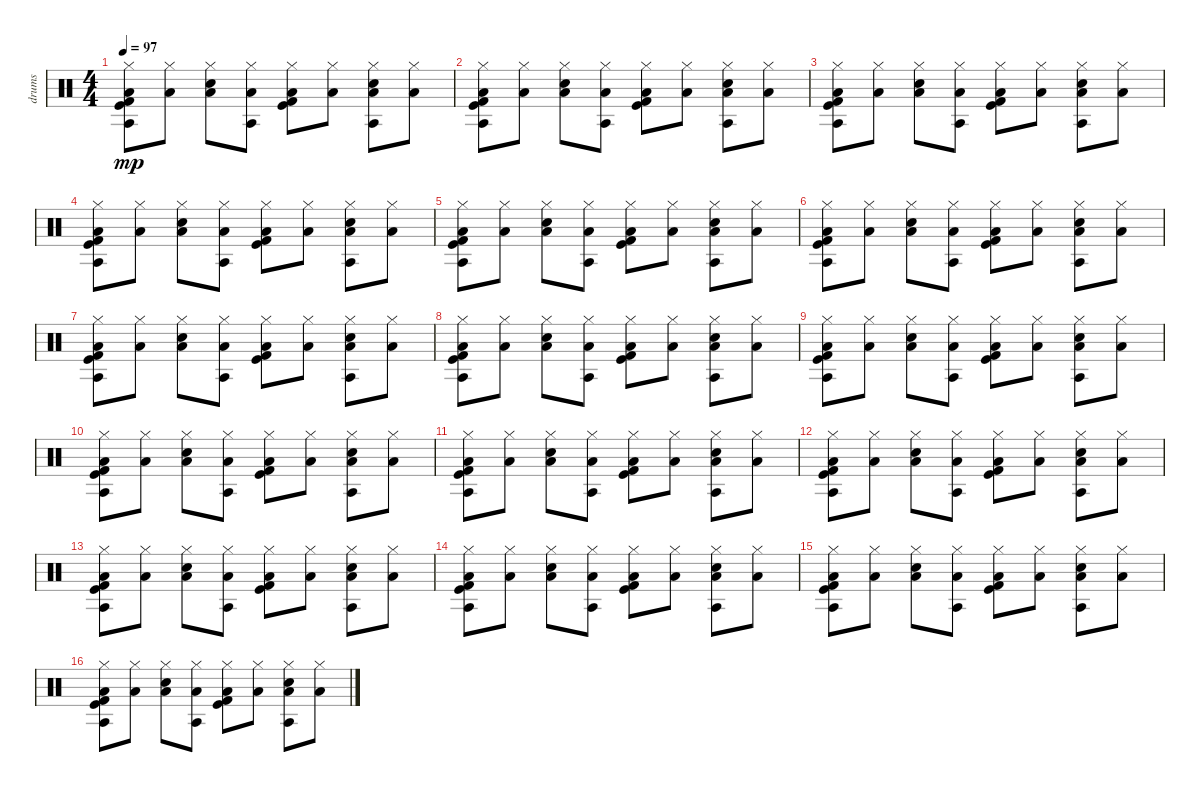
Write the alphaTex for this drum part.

\track ("drums" "drums") {instrument percussion}
\staff {score}
\articulation defaults
\ts (4 4)
\tempo 97
\clef neutral
\ks c
("Hi-Hat (closed)" "Agogo tow (hit)" "Kick (hit)" "Kick (hit) 2" "Low Floor Tom (hit)").8{dy mp} ("Hi-Hat (closed)" "Low Floor Tom (hit)").8 ("Electric Snare (hit)" "Hi-Hat (closed)" "Low Floor Tom (hit)").8 ("Hi-Hat (closed)" "Agogo tow (hit)" "Low Floor Tom (hit)").8 ("Kick (hit)" "Hi-Hat (closed)" "Kick (hit) 2" "Low Floor Tom (hit)").8 ("Hi-Hat (closed)" "Low Floor Tom (hit)").8 ("Agogo tow (hit)" "Hi-Hat (closed)" "Electric Snare (hit)" "Low Floor Tom (hit)").8 ("Hi-Hat (closed)" "Low Floor Tom (hit)").8 |
("Kick (hit)" "Kick (hit) 2" "Agogo tow (hit)" "Hi-Hat (closed)" "Low Floor Tom (hit)").8 ("Hi-Hat (closed)" "Low Floor Tom (hit)").8 ("Hi-Hat (closed)" "Electric Snare (hit)" "Low Floor Tom (hit)").8 ("Agogo tow (hit)" "Hi-Hat (closed)" "Low Floor Tom (hit)").8 ("Kick (hit) 2" "Kick (hit)" "Hi-Hat (closed)" "Low Floor Tom (hit)").8 ("Hi-Hat (closed)" "Low Floor Tom (hit)").8 ("Agogo tow (hit)" "Hi-Hat (closed)" "Electric Snare (hit)" "Low Floor Tom (hit)").8 ("Hi-Hat (closed)" "Low Floor Tom (hit)").8 |
("Kick (hit)" "Kick (hit) 2" "Hi-Hat (closed)" "Agogo tow (hit)" "Low Floor Tom (hit)").8 ("Hi-Hat (closed)" "Low Floor Tom (hit)").8 ("Hi-Hat (closed)" "Electric Snare (hit)" "Low Floor Tom (hit)").8 ("Hi-Hat (closed)" "Agogo tow (hit)" "Low Floor Tom (hit)").8 ("Kick (hit)" "Kick (hit) 2" "Hi-Hat (closed)" "Low Floor Tom (hit)").8 ("Hi-Hat (closed)" "Low Floor Tom (hit)").8 ("Hi-Hat (closed)" "Agogo tow (hit)" "Electric Snare (hit)" "Low Floor Tom (hit)").8 ("Hi-Hat (closed)" "Low Floor Tom (hit)").8 |
("Kick (hit) 2" "Kick (hit)" "Agogo tow (hit)" "Hi-Hat (closed)" "Low Floor Tom (hit)").8 ("Hi-Hat (closed)" "Low Floor Tom (hit)").8 ("Hi-Hat (closed)" "Electric Snare (hit)" "Low Floor Tom (hit)").8 ("Agogo tow (hit)" "Hi-Hat (closed)" "Low Floor Tom (hit)").8 ("Kick (hit)" "Kick (hit) 2" "Hi-Hat (closed)" "Low Floor Tom (hit)").8 ("Hi-Hat (closed)" "Low Floor Tom (hit)").8 ("Agogo tow (hit)" "Hi-Hat (closed)" "Electric Snare (hit)" "Low Floor Tom (hit)").8 ("Hi-Hat (closed)" "Low Floor Tom (hit)").8 |
("Kick (hit)" "Kick (hit) 2" "Agogo tow (hit)" "Hi-Hat (closed)" "Low Floor Tom (hit)").8 ("Hi-Hat (closed)" "Low Floor Tom (hit)").8 ("Hi-Hat (closed)" "Electric Snare (hit)" "Low Floor Tom (hit)").8 ("Agogo tow (hit)" "Hi-Hat (closed)" "Low Floor Tom (hit)").8 ("Kick (hit) 2" "Kick (hit)" "Hi-Hat (closed)" "Low Floor Tom (hit)").8 ("Hi-Hat (closed)" "Low Floor Tom (hit)").8 ("Agogo tow (hit)" "Hi-Hat (closed)" "Electric Snare (hit)" "Low Floor Tom (hit)").8 ("Hi-Hat (closed)" "Low Floor Tom (hit)").8 |
("Kick (hit)" "Kick (hit) 2" "Agogo tow (hit)" "Hi-Hat (closed)" "Low Floor Tom (hit)").8 ("Hi-Hat (closed)" "Low Floor Tom (hit)").8 ("Hi-Hat (closed)" "Electric Snare (hit)" "Low Floor Tom (hit)").8 ("Agogo tow (hit)" "Hi-Hat (closed)" "Low Floor Tom (hit)").8 ("Kick (hit)" "Kick (hit) 2" "Hi-Hat (closed)" "Low Floor Tom (hit)").8 ("Hi-Hat (closed)" "Low Floor Tom (hit)").8 ("Agogo tow (hit)" "Hi-Hat (closed)" "Electric Snare (hit)" "Low Floor Tom (hit)").8 ("Hi-Hat (closed)" "Low Floor Tom (hit)").8 |
("Kick (hit) 2" "Kick (hit)" "Hi-Hat (closed)" "Agogo tow (hit)" "Low Floor Tom (hit)").8 ("Hi-Hat (closed)" "Low Floor Tom (hit)").8 ("Hi-Hat (closed)" "Electric Snare (hit)" "Low Floor Tom (hit)").8 ("Hi-Hat (closed)" "Agogo tow (hit)" "Low Floor Tom (hit)").8 ("Kick (hit)" "Kick (hit) 2" "Hi-Hat (closed)" "Low Floor Tom (hit)").8 ("Hi-Hat (closed)" "Low Floor Tom (hit)").8 ("Hi-Hat (closed)" "Agogo tow (hit)" "Electric Snare (hit)" "Low Floor Tom (hit)").8 ("Hi-Hat (closed)" "Low Floor Tom (hit)").8 |
("Kick (hit)" "Kick (hit) 2" "Agogo tow (hit)" "Hi-Hat (closed)" "Low Floor Tom (hit)").8 ("Hi-Hat (closed)" "Low Floor Tom (hit)").8 ("Hi-Hat (closed)" "Electric Snare (hit)" "Low Floor Tom (hit)").8 ("Agogo tow (hit)" "Hi-Hat (closed)" "Low Floor Tom (hit)").8 ("Kick (hit)" "Kick (hit) 2" "Hi-Hat (closed)" "Low Floor Tom (hit)").8 ("Hi-Hat (closed)" "Low Floor Tom (hit)").8 ("Agogo tow (hit)" "Hi-Hat (closed)" "Electric Snare (hit)" "Low Floor Tom (hit)").8 ("Hi-Hat (closed)" "Low Floor Tom (hit)").8 |
("Hi-Hat (closed)" "Agogo tow (hit)" "Kick (hit)" "Kick (hit) 2" "Low Floor Tom (hit)").8 ("Hi-Hat (closed)" "Low Floor Tom (hit)").8 ("Electric Snare (hit)" "Hi-Hat (closed)" "Low Floor Tom (hit)").8 ("Hi-Hat (closed)" "Agogo tow (hit)" "Low Floor Tom (hit)").8 ("Kick (hit)" "Hi-Hat (closed)" "Kick (hit) 2" "Low Floor Tom (hit)").8 ("Hi-Hat (closed)" "Low Floor Tom (hit)").8 ("Agogo tow (hit)" "Hi-Hat (closed)" "Electric Snare (hit)" "Low Floor Tom (hit)").8 ("Hi-Hat (closed)" "Low Floor Tom (hit)").8 |
("Kick (hit)" "Kick (hit) 2" "Agogo tow (hit)" "Hi-Hat (closed)" "Low Floor Tom (hit)").8 ("Hi-Hat (closed)" "Low Floor Tom (hit)").8 ("Hi-Hat (closed)" "Electric Snare (hit)" "Low Floor Tom (hit)").8 ("Agogo tow (hit)" "Hi-Hat (closed)" "Low Floor Tom (hit)").8 ("Kick (hit) 2" "Kick (hit)" "Hi-Hat (closed)" "Low Floor Tom (hit)").8 ("Hi-Hat (closed)" "Low Floor Tom (hit)").8 ("Agogo tow (hit)" "Hi-Hat (closed)" "Electric Snare (hit)" "Low Floor Tom (hit)").8 ("Hi-Hat (closed)" "Low Floor Tom (hit)").8 |
("Kick (hit)" "Kick (hit) 2" "Hi-Hat (closed)" "Agogo tow (hit)" "Low Floor Tom (hit)").8 ("Hi-Hat (closed)" "Low Floor Tom (hit)").8 ("Hi-Hat (closed)" "Electric Snare (hit)" "Low Floor Tom (hit)").8 ("Hi-Hat (closed)" "Agogo tow (hit)" "Low Floor Tom (hit)").8 ("Kick (hit)" "Kick (hit) 2" "Hi-Hat (closed)" "Low Floor Tom (hit)").8 ("Hi-Hat (closed)" "Low Floor Tom (hit)").8 ("Hi-Hat (closed)" "Agogo tow (hit)" "Electric Snare (hit)" "Low Floor Tom (hit)").8 ("Hi-Hat (closed)" "Low Floor Tom (hit)").8 |
("Kick (hit) 2" "Kick (hit)" "Agogo tow (hit)" "Hi-Hat (closed)" "Low Floor Tom (hit)").8 ("Hi-Hat (closed)" "Low Floor Tom (hit)").8 ("Hi-Hat (closed)" "Electric Snare (hit)" "Low Floor Tom (hit)").8 ("Agogo tow (hit)" "Hi-Hat (closed)" "Low Floor Tom (hit)").8 ("Kick (hit)" "Kick (hit) 2" "Hi-Hat (closed)" "Low Floor Tom (hit)").8 ("Hi-Hat (closed)" "Low Floor Tom (hit)").8 ("Agogo tow (hit)" "Hi-Hat (closed)" "Electric Snare (hit)" "Low Floor Tom (hit)").8 ("Hi-Hat (closed)" "Low Floor Tom (hit)").8 |
("Kick (hit)" "Kick (hit) 2" "Agogo tow (hit)" "Hi-Hat (closed)" "Low Floor Tom (hit)").8 ("Hi-Hat (closed)" "Low Floor Tom (hit)").8 ("Hi-Hat (closed)" "Electric Snare (hit)" "Low Floor Tom (hit)").8 ("Agogo tow (hit)" "Hi-Hat (closed)" "Low Floor Tom (hit)").8 ("Kick (hit) 2" "Kick (hit)" "Hi-Hat (closed)" "Low Floor Tom (hit)").8 ("Hi-Hat (closed)" "Low Floor Tom (hit)").8 ("Agogo tow (hit)" "Hi-Hat (closed)" "Electric Snare (hit)" "Low Floor Tom (hit)").8 ("Hi-Hat (closed)" "Low Floor Tom (hit)").8 |
("Kick (hit)" "Kick (hit) 2" "Agogo tow (hit)" "Hi-Hat (closed)" "Low Floor Tom (hit)").8 ("Hi-Hat (closed)" "Low Floor Tom (hit)").8 ("Hi-Hat (closed)" "Electric Snare (hit)" "Low Floor Tom (hit)").8 ("Agogo tow (hit)" "Hi-Hat (closed)" "Low Floor Tom (hit)").8 ("Kick (hit)" "Kick (hit) 2" "Hi-Hat (closed)" "Low Floor Tom (hit)").8 ("Hi-Hat (closed)" "Low Floor Tom (hit)").8 ("Agogo tow (hit)" "Hi-Hat (closed)" "Electric Snare (hit)" "Low Floor Tom (hit)").8 ("Hi-Hat (closed)" "Low Floor Tom (hit)").8 |
("Kick (hit) 2" "Kick (hit)" "Hi-Hat (closed)" "Agogo tow (hit)" "Low Floor Tom (hit)").8 ("Hi-Hat (closed)" "Low Floor Tom (hit)").8 ("Hi-Hat (closed)" "Electric Snare (hit)" "Low Floor Tom (hit)").8 ("Hi-Hat (closed)" "Agogo tow (hit)" "Low Floor Tom (hit)").8 ("Kick (hit)" "Kick (hit) 2" "Hi-Hat (closed)" "Low Floor Tom (hit)").8 ("Hi-Hat (closed)" "Low Floor Tom (hit)").8 ("Hi-Hat (closed)" "Agogo tow (hit)" "Electric Snare (hit)" "Low Floor Tom (hit)").8 ("Hi-Hat (closed)" "Low Floor Tom (hit)").8 |
("Kick (hit)" "Kick (hit) 2" "Agogo tow (hit)" "Hi-Hat (closed)" "Low Floor Tom (hit)").8 ("Hi-Hat (closed)" "Low Floor Tom (hit)").8 ("Hi-Hat (closed)" "Electric Snare (hit)" "Low Floor Tom (hit)").8 ("Agogo tow (hit)" "Hi-Hat (closed)" "Low Floor Tom (hit)").8 ("Kick (hit)" "Kick (hit) 2" "Hi-Hat (closed)" "Low Floor Tom (hit)").8 ("Hi-Hat (closed)" "Low Floor Tom (hit)").8 ("Agogo tow (hit)" "Hi-Hat (closed)" "Electric Snare (hit)" "Low Floor Tom (hit)").8 ("Hi-Hat (closed)" "Low Floor Tom (hit)").8
